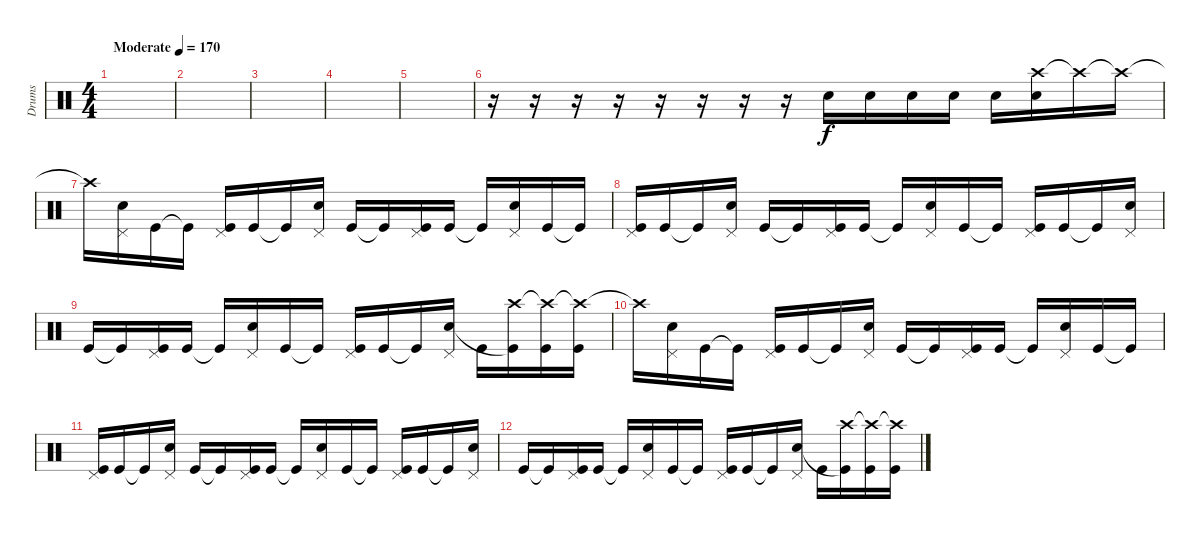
\track ("Drums" "Drums") {instrument percussion}
\staff {score}
\articulation defaults
\ts (4 4)
\tempo (170 "Moderate")
\clef neutral
\ks c
|
|
|
|
|
r.16 r.16 r.16 r.16 r.16 r.16 r.16 r.16 "Snare (hit) 2".16 "Snare (hit) 2".16 "Snare (hit) 2".16 "Snare (hit) 2".16 "Snare (hit) 2".16 ("Crash high (hit)" "Snare (hit) 2").16 "Crash high (hit)"{t}.16 "Crash high (hit)"{t}.16 |
"Crash high (hit)"{t}.16 ("Pedal Hi-Hat (hit)" "Snare (hit) 2").16 "Kick (hit)".16 "Kick (hit)"{t}.16 ("Pedal Hi-Hat (hit)" "Kick (hit)").16 "Kick (hit)".16 "Kick (hit)"{t}.16 ("Pedal Hi-Hat (hit)" "Snare (hit) 2").16 "Kick (hit)".16 "Kick (hit)"{t}.16 ("Pedal Hi-Hat (hit)" "Kick (hit)").16 "Kick (hit)".16 "Kick (hit)"{t}.16 ("Pedal Hi-Hat (hit)" "Snare (hit) 2").16 "Kick (hit)".16 "Kick (hit)"{t}.16 |
("Pedal Hi-Hat (hit)" "Kick (hit)").16 "Kick (hit)".16 "Kick (hit)"{t}.16 ("Pedal Hi-Hat (hit)" "Snare (hit) 2").16 "Kick (hit)".16 "Kick (hit)"{t}.16 ("Pedal Hi-Hat (hit)" "Kick (hit)").16 "Kick (hit)".16 "Kick (hit)"{t}.16 ("Pedal Hi-Hat (hit)" "Snare (hit) 2").16 "Kick (hit)".16 "Kick (hit)"{t}.16 ("Pedal Hi-Hat (hit)" "Kick (hit)").16 "Kick (hit)".16 "Kick (hit)"{t}.16 ("Pedal Hi-Hat (hit)" "Snare (hit) 2").16 |
"Kick (hit)".16 "Kick (hit)"{t}.16 ("Pedal Hi-Hat (hit)" "Kick (hit)").16 "Kick (hit)".16 "Kick (hit)"{t}.16 ("Pedal Hi-Hat (hit)" "Snare (hit) 2").16 "Kick (hit)".16 "Kick (hit)"{t}.16 ("Pedal Hi-Hat (hit)" "Kick (hit)").16 "Kick (hit)".16 "Kick (hit)"{t}.16 ("Pedal Hi-Hat (hit)" "Snare (hit) 2").16 "Kick (hit)".16 ("Crash high (hit)" "Kick (hit)"{t}).16 ("Crash high (hit)"{t} "Kick (hit)").16 ("Crash high (hit)"{t} "Kick (hit)").16 |
"Crash high (hit)"{t}.16 ("Pedal Hi-Hat (hit)" "Snare (hit) 2").16 "Kick (hit)".16 "Kick (hit)"{t}.16 ("Pedal Hi-Hat (hit)" "Kick (hit)").16 "Kick (hit)".16 "Kick (hit)"{t}.16 ("Pedal Hi-Hat (hit)" "Snare (hit) 2").16 "Kick (hit)".16 "Kick (hit)"{t}.16 ("Pedal Hi-Hat (hit)" "Kick (hit)").16 "Kick (hit)".16 "Kick (hit)"{t}.16 ("Pedal Hi-Hat (hit)" "Snare (hit) 2").16 "Kick (hit)".16 "Kick (hit)"{t}.16 |
("Pedal Hi-Hat (hit)" "Kick (hit)").16 "Kick (hit)".16 "Kick (hit)"{t}.16 ("Pedal Hi-Hat (hit)" "Snare (hit) 2").16 "Kick (hit)".16 "Kick (hit)"{t}.16 ("Pedal Hi-Hat (hit)" "Kick (hit)").16 "Kick (hit)".16 "Kick (hit)"{t}.16 ("Pedal Hi-Hat (hit)" "Snare (hit) 2").16 "Kick (hit)".16 "Kick (hit)"{t}.16 ("Pedal Hi-Hat (hit)" "Kick (hit)").16 "Kick (hit)".16 "Kick (hit)"{t}.16 ("Pedal Hi-Hat (hit)" "Snare (hit) 2").16 |
"Kick (hit)".16 "Kick (hit)"{t}.16 ("Pedal Hi-Hat (hit)" "Kick (hit)").16 "Kick (hit)".16 "Kick (hit)"{t}.16 ("Pedal Hi-Hat (hit)" "Snare (hit) 2").16 "Kick (hit)".16 "Kick (hit)"{t}.16 ("Pedal Hi-Hat (hit)" "Kick (hit)").16 "Kick (hit)".16 "Kick (hit)"{t}.16 ("Pedal Hi-Hat (hit)" "Snare (hit) 2").16 "Kick (hit)".16 ("Crash high (hit)" "Kick (hit)"{t}).16 ("Crash high (hit)"{t} "Kick (hit)").16 ("Crash high (hit)"{t} "Kick (hit)").16
